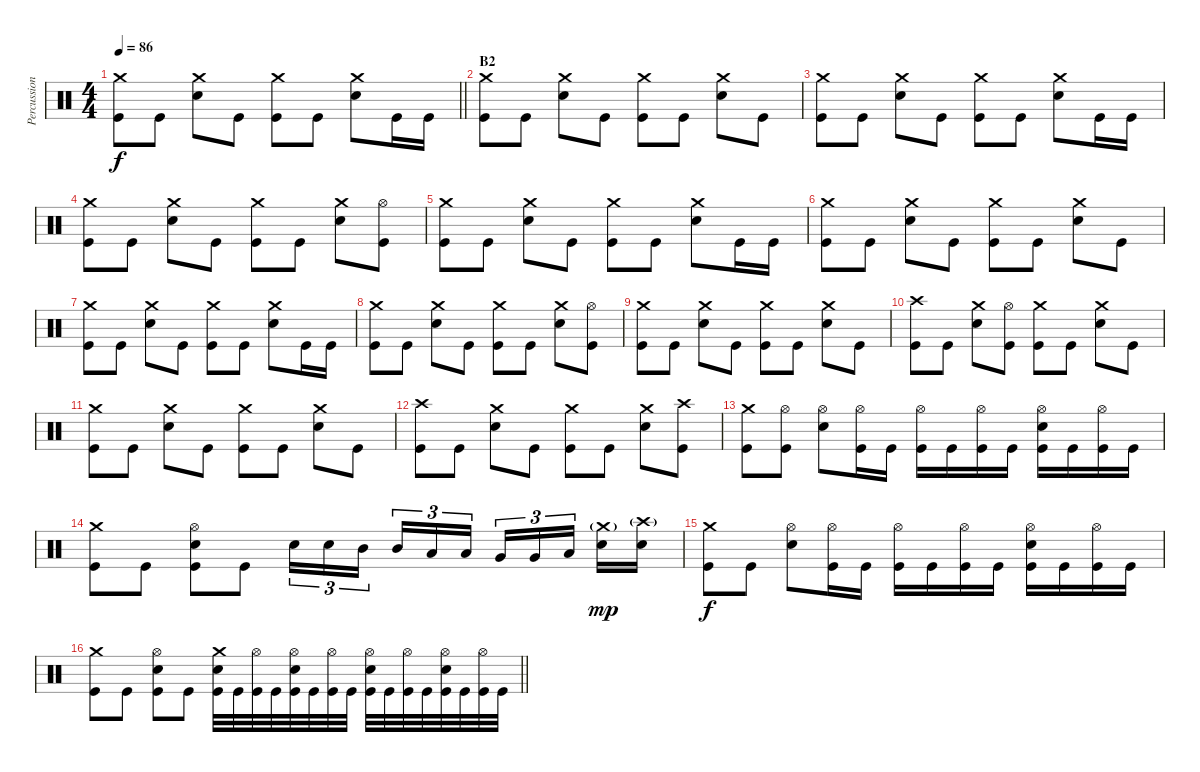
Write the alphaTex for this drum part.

\track ("Percussion" "Percussion") {instrument percussion}
\staff {score}
\articulation defaults
\ts (4 4)
\tempo 86
\clef neutral
\barLineRight lightlight
\ks c
("Kick (hit)" "Crash medium (hit)").8{dy f} "Kick (hit)".8 ("Snare (hit) 2" "Crash medium (hit)").8 "Kick (hit)".8 ("Kick (hit)" "Crash medium (hit)").8 "Kick (hit)".8 ("Snare (hit) 2" "Crash medium (hit)").8 "Kick (hit)".16 "Kick (hit)".16 |
\section ("" "B2")
("Kick (hit)" "Crash medium (hit)").8 "Kick (hit)".8 ("Snare (hit) 2" "Crash medium (hit)").8 "Kick (hit)".8 ("Kick (hit)" "Crash medium (hit)").8 "Kick (hit)".8 ("Snare (hit) 2" "Crash medium (hit)").8 "Kick (hit)".8 |
("Kick (hit)" "Crash medium (hit)").8 "Kick (hit)".8 ("Snare (hit) 2" "Crash medium (hit)").8 "Kick (hit)".8 ("Kick (hit)" "Crash medium (hit)").8 "Kick (hit)".8 ("Snare (hit) 2" "Crash medium (hit)").8 "Kick (hit)".16 "Kick (hit)".16 |
("Kick (hit)" "Crash medium (hit)").8 "Kick (hit)".8 ("Snare (hit) 2" "Crash medium (hit)").8 "Kick (hit)".8 ("Kick (hit)" "Crash medium (hit)").8 "Kick (hit)".8 ("Snare (hit) 2" "Crash medium (hit)").8 ("Kick (hit)" "Hi-Hat (open)").8 |
("Kick (hit)" "Crash medium (hit)").8 "Kick (hit)".8 ("Snare (hit) 2" "Crash medium (hit)").8 "Kick (hit)".8 ("Kick (hit)" "Crash medium (hit)").8 "Kick (hit)".8 ("Snare (hit) 2" "Crash medium (hit)").8 "Kick (hit)".16 "Kick (hit)".16 |
("Kick (hit)" "Crash medium (hit)").8 "Kick (hit)".8 ("Snare (hit) 2" "Crash medium (hit)").8 "Kick (hit)".8 ("Kick (hit)" "Crash medium (hit)").8 "Kick (hit)".8 ("Snare (hit) 2" "Crash medium (hit)").8 "Kick (hit)".8 |
("Kick (hit)" "Crash medium (hit)").8 "Kick (hit)".8 ("Snare (hit) 2" "Crash medium (hit)").8 "Kick (hit)".8 ("Kick (hit)" "Crash medium (hit)").8 "Kick (hit)".8 ("Snare (hit) 2" "Crash medium (hit)").8 "Kick (hit)".16 "Kick (hit)".16 |
("Kick (hit)" "Crash medium (hit)").8 "Kick (hit)".8 ("Snare (hit) 2" "Crash medium (hit)").8 "Kick (hit)".8 ("Kick (hit)" "Crash medium (hit)").8 "Kick (hit)".8 ("Snare (hit) 2" "Crash medium (hit)").8 ("Kick (hit)" "Hi-Hat (open)").8 |
("Kick (hit)" "Crash medium (hit)").8 "Kick (hit)".8 ("Snare (hit) 2" "Crash medium (hit)").8 "Kick (hit)".8 ("Kick (hit)" "Crash medium (hit)").8 "Kick (hit)".8 ("Snare (hit) 2" "Crash medium (hit)").8 "Kick (hit)".8 |
("Kick (hit)" "Crash high (hit)").8 "Kick (hit)".8 ("Snare (hit) 2" "Crash medium (hit)").8 ("Kick (hit)" "Hi-Hat (open)").8 ("Kick (hit)" "Crash medium (hit)").8 "Kick (hit)".8 ("Snare (hit) 2" "Crash medium (hit)").8 "Kick (hit)".8 |
("Kick (hit)" "Crash medium (hit)").8 "Kick (hit)".8 ("Snare (hit) 2" "Crash medium (hit)").8 "Kick (hit)".8 ("Kick (hit)" "Crash medium (hit)").8 "Kick (hit)".8 ("Snare (hit) 2" "Crash medium (hit)").8 "Kick (hit)".8 |
("Kick (hit)" "Crash high (hit)").8 "Kick (hit)".8 ("Snare (hit) 2" "Crash medium (hit)").8 "Kick (hit)".8 ("Kick (hit)" "Crash medium (hit)").8 "Kick (hit)".8 ("Snare (hit) 2" "Crash medium (hit)").8 ("Kick (hit)" "Crash high (hit)").8 |
("Kick (hit)" "Crash medium (hit)").8 ("Kick (hit)" "Hi-Hat (open)").8 ("Snare (hit) 2" "Hi-Hat (open)").8 ("Kick (hit)" "Hi-Hat (open)").16 "Kick (hit)".16 ("Kick (hit)" "Hi-Hat (open)").16 "Kick (hit)".16 ("Kick (hit)" "Hi-Hat (open)").16 "Kick (hit)".16 ("Kick (hit)" "Snare (hit) 2" "Hi-Hat (open)").16 "Kick (hit)".16 ("Kick (hit)" "Hi-Hat (open)").16 "Kick (hit)".16 |
("Kick (hit)" "Crash medium (hit)").8 "Kick (hit)".8 ("Kick (hit)" "Snare (hit) 2" "Hi-Hat (open)").8 "Kick (hit)".8 "Snare (hit) 2".16{tu (3 2)} "Snare (hit) 2".16{tu (3 2)} "Mid Tom (hit)".16{tu (3 2) beam splitsecondary} "Mid Tom (hit)".16{tu (3 2)} "Low Tom (hit)".16{tu (3 2)} "Low Tom (hit)".16{tu (3 2)} "Very Low Tom (hit)".16{tu (3 2)} "Very Low Tom (hit)".16{tu (3 2)} "Low Floor Tom (hit)".16{tu (3 2) beam splitsecondary} ("Crash medium (hit)"{g} "Snare (hit) 2").16{dy mp} ("Crash high (hit)"{g} "Snare (hit) 2").16 |
("Kick (hit)" "Crash medium (hit)").8{dy f} "Kick (hit)".8 ("Snare (hit) 2" "Hi-Hat (open)").8 ("Kick (hit)" "Hi-Hat (open)").16 "Kick (hit)".16 ("Kick (hit)" "Hi-Hat (open)").16 "Kick (hit)".16 ("Kick (hit)" "Hi-Hat (open)").16 "Kick (hit)".16 ("Kick (hit)" "Snare (hit) 2" "Hi-Hat (open)").16 "Kick (hit)".16 ("Kick (hit)" "Hi-Hat (open)").16 "Kick (hit)".16 |
\barLineRight lightlight
("Kick (hit)" "Crash medium (hit)").8 "Kick (hit)".8 ("Kick (hit)" "Snare (hit) 2" "Hi-Hat (open)").8 "Kick (hit)".8 ("Kick (hit)" "Snare (hit) 2" "Crash medium (hit)").32 "Kick (hit)".32 ("Kick (hit)" "Hi-Hat (open)").32 "Kick (hit)".32 ("Kick (hit)" "Snare (hit) 2" "Hi-Hat (open)").32 "Kick (hit)".32 ("Kick (hit)" "Hi-Hat (open)").32 "Kick (hit)".32 ("Kick (hit)" "Snare (hit) 2" "Hi-Hat (open)").32 "Kick (hit)".32 ("Kick (hit)" "Hi-Hat (open)").32 "Kick (hit)".32 ("Kick (hit)" "Snare (hit) 2" "Hi-Hat (open)").32 "Kick (hit)".32 ("Kick (hit)" "Hi-Hat (open)").32 "Kick (hit)".32
